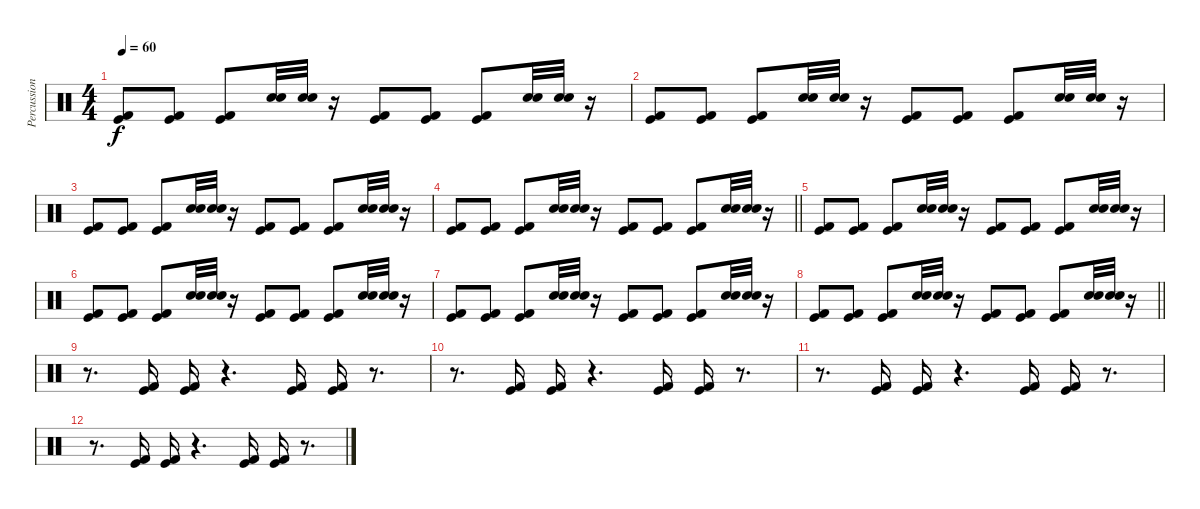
\track ("Percussion" "Percussion") {instrument percussion}
\staff {score}
\articulation defaults
\ts (4 4)
\tempo 60
\clef neutral
\ks c
("Kick (hit) 2" "Kick (hit)").8{dy f} ("Kick (hit) 2" "Kick (hit)").8 ("Kick (hit) 2" "Kick (hit)").8 ("Snare (hit) 2" "Electric Snare (hit)").32 ("Snare (hit) 2" "Electric Snare (hit)").32 r.16 ("Kick (hit) 2" "Kick (hit)").8 ("Kick (hit) 2" "Kick (hit)").8 ("Kick (hit) 2" "Kick (hit)").8 ("Snare (hit) 2" "Electric Snare (hit)").32 ("Snare (hit) 2" "Electric Snare (hit)").32 r.16 |
("Kick (hit) 2" "Kick (hit)").8 ("Kick (hit) 2" "Kick (hit)").8 ("Kick (hit) 2" "Kick (hit)").8 ("Snare (hit) 2" "Electric Snare (hit)").32 ("Snare (hit) 2" "Electric Snare (hit)").32 r.16 ("Kick (hit) 2" "Kick (hit)").8 ("Kick (hit) 2" "Kick (hit)").8 ("Kick (hit) 2" "Kick (hit)").8 ("Snare (hit) 2" "Electric Snare (hit)").32 ("Snare (hit) 2" "Electric Snare (hit)").32 r.16 |
("Kick (hit) 2" "Kick (hit)").8 ("Kick (hit) 2" "Kick (hit)").8 ("Kick (hit) 2" "Kick (hit)").8 ("Snare (hit) 2" "Electric Snare (hit)").32 ("Snare (hit) 2" "Electric Snare (hit)").32 r.16 ("Kick (hit) 2" "Kick (hit)").8 ("Kick (hit) 2" "Kick (hit)").8 ("Kick (hit) 2" "Kick (hit)").8 ("Snare (hit) 2" "Electric Snare (hit)").32 ("Snare (hit) 2" "Electric Snare (hit)").32 r.16 |
\barLineRight lightlight
("Kick (hit) 2" "Kick (hit)").8 ("Kick (hit) 2" "Kick (hit)").8 ("Kick (hit) 2" "Kick (hit)").8 ("Snare (hit) 2" "Electric Snare (hit)").32 ("Snare (hit) 2" "Electric Snare (hit)").32 r.16 ("Kick (hit) 2" "Kick (hit)").8 ("Kick (hit) 2" "Kick (hit)").8 ("Kick (hit) 2" "Kick (hit)").8 ("Snare (hit) 2" "Electric Snare (hit)").32 ("Snare (hit) 2" "Electric Snare (hit)").32 r.16 |
("Kick (hit) 2" "Kick (hit)").8 ("Kick (hit) 2" "Kick (hit)").8 ("Kick (hit) 2" "Kick (hit)").8 ("Snare (hit) 2" "Electric Snare (hit)").32 ("Snare (hit) 2" "Electric Snare (hit)").32 r.16 ("Kick (hit) 2" "Kick (hit)").8 ("Kick (hit) 2" "Kick (hit)").8 ("Kick (hit) 2" "Kick (hit)").8 ("Snare (hit) 2" "Electric Snare (hit)").32 ("Snare (hit) 2" "Electric Snare (hit)").32 r.16 |
("Kick (hit) 2" "Kick (hit)").8 ("Kick (hit) 2" "Kick (hit)").8 ("Kick (hit) 2" "Kick (hit)").8 ("Snare (hit) 2" "Electric Snare (hit)").32 ("Snare (hit) 2" "Electric Snare (hit)").32 r.16 ("Kick (hit) 2" "Kick (hit)").8 ("Kick (hit) 2" "Kick (hit)").8 ("Kick (hit) 2" "Kick (hit)").8 ("Snare (hit) 2" "Electric Snare (hit)").32 ("Snare (hit) 2" "Electric Snare (hit)").32 r.16 |
("Kick (hit) 2" "Kick (hit)").8 ("Kick (hit) 2" "Kick (hit)").8 ("Kick (hit) 2" "Kick (hit)").8 ("Snare (hit) 2" "Electric Snare (hit)").32 ("Snare (hit) 2" "Electric Snare (hit)").32 r.16 ("Kick (hit) 2" "Kick (hit)").8 ("Kick (hit) 2" "Kick (hit)").8 ("Kick (hit) 2" "Kick (hit)").8 ("Snare (hit) 2" "Electric Snare (hit)").32 ("Snare (hit) 2" "Electric Snare (hit)").32 r.16 |
\barLineRight lightlight
("Kick (hit) 2" "Kick (hit)").8 ("Kick (hit) 2" "Kick (hit)").8 ("Kick (hit) 2" "Kick (hit)").8 ("Snare (hit) 2" "Electric Snare (hit)").32 ("Snare (hit) 2" "Electric Snare (hit)").32 r.16 ("Kick (hit) 2" "Kick (hit)").8 ("Kick (hit) 2" "Kick (hit)").8 ("Kick (hit) 2" "Kick (hit)").8 ("Snare (hit) 2" "Electric Snare (hit)").32 ("Snare (hit) 2" "Electric Snare (hit)").32 r.16 |
r.8{d} ("Kick (hit) 2" "Kick (hit)").16 ("Kick (hit) 2" "Kick (hit)").16 r.4{d} ("Kick (hit) 2" "Kick (hit)").16 ("Kick (hit) 2" "Kick (hit)").16 r.8{d} |
r.8{d} ("Kick (hit) 2" "Kick (hit)").16 ("Kick (hit) 2" "Kick (hit)").16 r.4{d} ("Kick (hit) 2" "Kick (hit)").16 ("Kick (hit) 2" "Kick (hit)").16 r.8{d} |
r.8{d} ("Kick (hit) 2" "Kick (hit)").16 ("Kick (hit) 2" "Kick (hit)").16 r.4{d} ("Kick (hit) 2" "Kick (hit)").16 ("Kick (hit) 2" "Kick (hit)").16 r.8{d} |
r.8{d} ("Kick (hit) 2" "Kick (hit)").16 ("Kick (hit) 2" "Kick (hit)").16 r.4{d} ("Kick (hit) 2" "Kick (hit)").16 ("Kick (hit) 2" "Kick (hit)").16 r.8{d}
